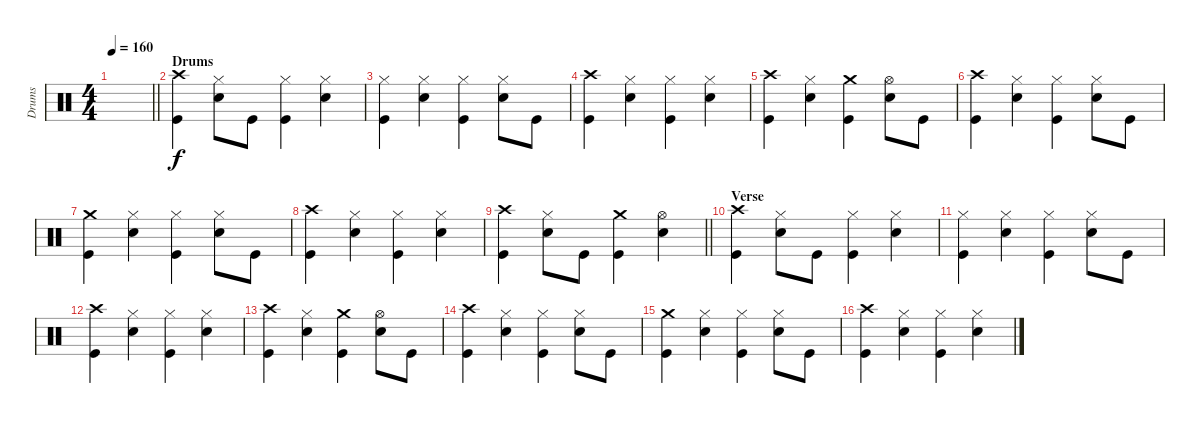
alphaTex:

\track ("Drums" "Drums") {instrument percussion}
\staff {score}
\articulation defaults
\ts (4 4)
\tempo 160
\clef neutral
\barLineRight lightlight
\ks c
|
\section ("" "Drums")
("Crash high (hit)" "Kick (hit)").4 ("Hi-Hat (closed)" "Snare (hit) 2").8 "Kick (hit)".8 ("Hi-Hat (closed)" "Kick (hit)").4 ("Hi-Hat (closed)" "Snare (hit) 2").4 |
("Hi-Hat (closed)" "Kick (hit)").4 ("Hi-Hat (closed)" "Snare (hit) 2").4 ("Hi-Hat (closed)" "Kick (hit)").4 ("Hi-Hat (closed)" "Snare (hit) 2").8 "Kick (hit)".8 |
("Crash high (hit)" "Kick (hit)").4 ("Hi-Hat (closed)" "Snare (hit) 2").4 ("Hi-Hat (closed)" "Kick (hit)").4 ("Hi-Hat (closed)" "Snare (hit) 2").4 |
("Crash high (hit)" "Kick (hit)").4 ("Hi-Hat (closed)" "Snare (hit) 2").4 ("Crash medium (hit)" "Kick (hit)").4 ("Hi-Hat (open)" "Snare (hit) 2").8 "Kick (hit)".8 |
("Crash high (hit)" "Kick (hit)").4 ("Hi-Hat (closed)" "Snare (hit) 2").4 ("Hi-Hat (closed)" "Kick (hit)").4 ("Hi-Hat (closed)" "Snare (hit) 2").8 "Kick (hit)".8 |
("Crash medium (hit)" "Kick (hit)").4 ("Hi-Hat (closed)" "Snare (hit) 2").4 ("Hi-Hat (closed)" "Kick (hit)").4 ("Hi-Hat (closed)" "Snare (hit) 2").8 "Kick (hit)".8 |
("Crash high (hit)" "Kick (hit)").4 ("Hi-Hat (closed)" "Snare (hit) 2").4 ("Hi-Hat (closed)" "Kick (hit)").4 ("Hi-Hat (closed)" "Snare (hit) 2").4 |
\barLineRight lightlight
("Crash high (hit)" "Kick (hit)").4 ("Hi-Hat (closed)" "Snare (hit) 2").8 "Kick (hit)".8 ("Crash medium (hit)" "Kick (hit)").4 ("Hi-Hat (open)" "Snare (hit) 2").4 |
\section ("" "Verse")
("Crash high (hit)" "Kick (hit)").4 ("Hi-Hat (closed)" "Snare (hit) 2").8 "Kick (hit)".8 ("Hi-Hat (closed)" "Kick (hit)").4 ("Hi-Hat (closed)" "Snare (hit) 2").4 |
("Hi-Hat (closed)" "Kick (hit)").4 ("Hi-Hat (closed)" "Snare (hit) 2").4 ("Hi-Hat (closed)" "Kick (hit)").4 ("Hi-Hat (closed)" "Snare (hit) 2").8 "Kick (hit)".8 |
("Crash high (hit)" "Kick (hit)").4 ("Hi-Hat (closed)" "Snare (hit) 2").4 ("Hi-Hat (closed)" "Kick (hit)").4 ("Hi-Hat (closed)" "Snare (hit) 2").4 |
("Crash high (hit)" "Kick (hit)").4 ("Hi-Hat (closed)" "Snare (hit) 2").4 ("Crash medium (hit)" "Kick (hit)").4 ("Hi-Hat (open)" "Snare (hit) 2").8 "Kick (hit)".8 |
("Crash high (hit)" "Kick (hit)").4 ("Hi-Hat (closed)" "Snare (hit) 2").4 ("Hi-Hat (closed)" "Kick (hit)").4 ("Hi-Hat (closed)" "Snare (hit) 2").8 "Kick (hit)".8 |
("Crash medium (hit)" "Kick (hit)").4 ("Hi-Hat (closed)" "Snare (hit) 2").4 ("Hi-Hat (closed)" "Kick (hit)").4 ("Hi-Hat (closed)" "Snare (hit) 2").8 "Kick (hit)".8 |
("Crash high (hit)" "Kick (hit)").4 ("Hi-Hat (closed)" "Snare (hit) 2").4 ("Hi-Hat (closed)" "Kick (hit)").4 ("Hi-Hat (closed)" "Snare (hit) 2").4
